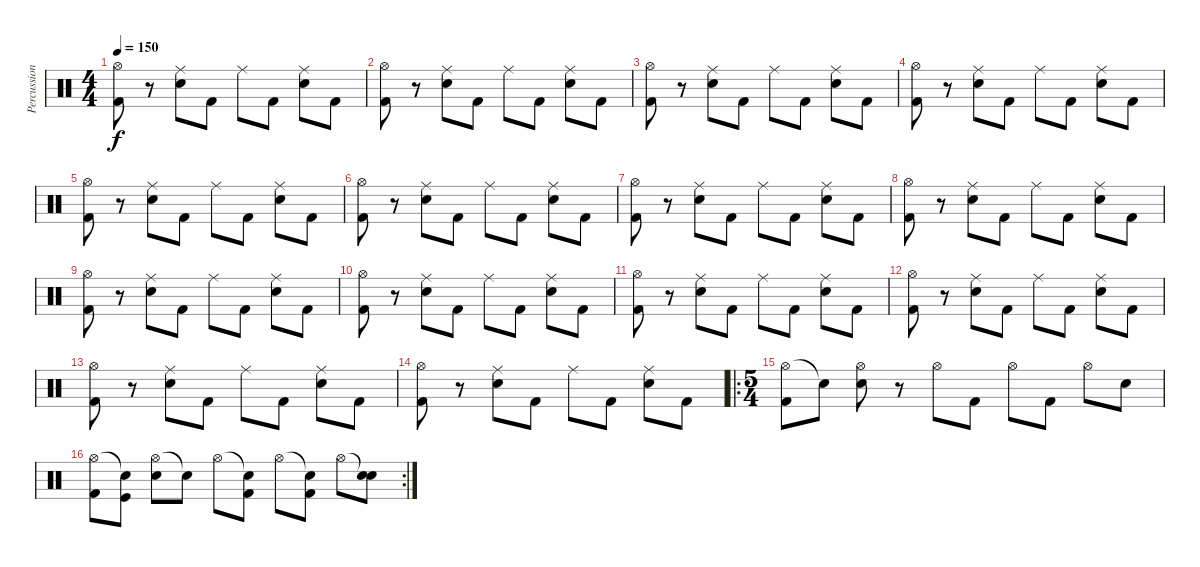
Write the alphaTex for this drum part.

\track ("Percussion" "Percussion") {instrument percussion}
\staff {score}
\articulation defaults
\ts (4 4)
\tempo 150
\clef neutral
\ks c
("Hi-Hat (open)" "Kick (hit) 2").8{dy f} r.8 ("Ride (middle)" "Snare (hit) 2").8 "Kick (hit) 2".8 "Ride (middle)".8 "Kick (hit) 2".8 ("Ride (middle)" "Snare (hit) 2").8 "Kick (hit) 2".8 |
("Hi-Hat (open)" "Kick (hit) 2").8 r.8 ("Ride (middle)" "Snare (hit) 2").8 "Kick (hit) 2".8 "Ride (middle)".8 "Kick (hit) 2".8 ("Ride (middle)" "Snare (hit) 2").8 "Kick (hit) 2".8 |
("Hi-Hat (open)" "Kick (hit) 2").8 r.8 ("Ride (middle)" "Snare (hit) 2").8 "Kick (hit) 2".8 "Ride (middle)".8 "Kick (hit) 2".8 ("Ride (middle)" "Snare (hit) 2").8 "Kick (hit) 2".8 |
("Hi-Hat (open)" "Kick (hit) 2").8 r.8 ("Ride (middle)" "Snare (hit) 2").8 "Kick (hit) 2".8 "Ride (middle)".8 "Kick (hit) 2".8 ("Ride (middle)" "Snare (hit) 2").8 "Kick (hit) 2".8 |
("Hi-Hat (open)" "Kick (hit) 2").8 r.8 ("Ride (middle)" "Snare (hit) 2").8 "Kick (hit) 2".8 "Ride (middle)".8 "Kick (hit) 2".8 ("Ride (middle)" "Snare (hit) 2").8 "Kick (hit) 2".8 |
("Hi-Hat (open)" "Kick (hit) 2").8 r.8 ("Ride (middle)" "Snare (hit) 2").8 "Kick (hit) 2".8 "Ride (middle)".8 "Kick (hit) 2".8 ("Ride (middle)" "Snare (hit) 2").8 "Kick (hit) 2".8 |
("Hi-Hat (open)" "Kick (hit) 2").8 r.8 ("Ride (middle)" "Snare (hit) 2").8 "Kick (hit) 2".8 "Ride (middle)".8 "Kick (hit) 2".8 ("Ride (middle)" "Snare (hit) 2").8 "Kick (hit) 2".8 |
("Hi-Hat (open)" "Kick (hit) 2").8 r.8 ("Ride (middle)" "Snare (hit) 2").8 "Kick (hit) 2".8 "Ride (middle)".8 "Kick (hit) 2".8 ("Ride (middle)" "Snare (hit) 2").8 "Kick (hit) 2".8 |
("Hi-Hat (open)" "Kick (hit) 2").8 r.8 ("Ride (middle)" "Snare (hit) 2").8 "Kick (hit) 2".8 "Ride (middle)".8 "Kick (hit) 2".8 ("Ride (middle)" "Snare (hit) 2").8 "Kick (hit) 2".8 |
("Hi-Hat (open)" "Kick (hit) 2").8 r.8 ("Ride (middle)" "Snare (hit) 2").8 "Kick (hit) 2".8 "Ride (middle)".8 "Kick (hit) 2".8 ("Ride (middle)" "Snare (hit) 2").8 "Kick (hit) 2".8 |
("Hi-Hat (open)" "Kick (hit) 2").8 r.8 ("Ride (middle)" "Snare (hit) 2").8 "Kick (hit) 2".8 "Ride (middle)".8 "Kick (hit) 2".8 ("Ride (middle)" "Snare (hit) 2").8 "Kick (hit) 2".8 |
("Hi-Hat (open)" "Kick (hit) 2").8 r.8 ("Ride (middle)" "Snare (hit) 2").8 "Kick (hit) 2".8 "Ride (middle)".8 "Kick (hit) 2".8 ("Ride (middle)" "Snare (hit) 2").8 "Kick (hit) 2".8 |
("Hi-Hat (open)" "Kick (hit) 2").8 r.8 ("Ride (middle)" "Snare (hit) 2").8 "Kick (hit) 2".8 "Ride (middle)".8 "Kick (hit) 2".8 ("Ride (middle)" "Snare (hit) 2").8 "Kick (hit) 2".8 |
("Hi-Hat (open)" "Kick (hit) 2").8 r.8 ("Ride (middle)" "Snare (hit) 2").8 "Kick (hit) 2".8 "Ride (middle)".8 "Kick (hit) 2".8 ("Ride (middle)" "Snare (hit) 2").8 "Kick (hit) 2".8 |
\ro
\ts (5 4)
("Hi-Hat (open)" "Kick (hit) 2").8 "Snare (hit)"{t}.8 ("Hi-Hat (open)" "Snare (hit) 2").8 r.8 "Hi-Hat (open)".8 "Kick (hit) 2".8 "Hi-Hat (open)".8 "Kick (hit) 2".8 "Hi-Hat (open)".8 "Snare (hit) 2".8 |
\rc 2
("Hi-Hat (open)" "Kick (hit) 2").8 ("Snare (hit)"{t} "Kick (hit)").8 ("Hi-Hat (open)" "Snare (hit) 2").8 "Snare (hit)"{t}.8 "Hi-Hat (open)".8 ("Snare (hit)"{t} "Kick (hit) 2").8 "Hi-Hat (open)".8 ("Snare (hit)"{t} "Kick (hit) 2").8 "Hi-Hat (open)".8 ("Snare (hit)"{t} "Snare (hit) 2").8
